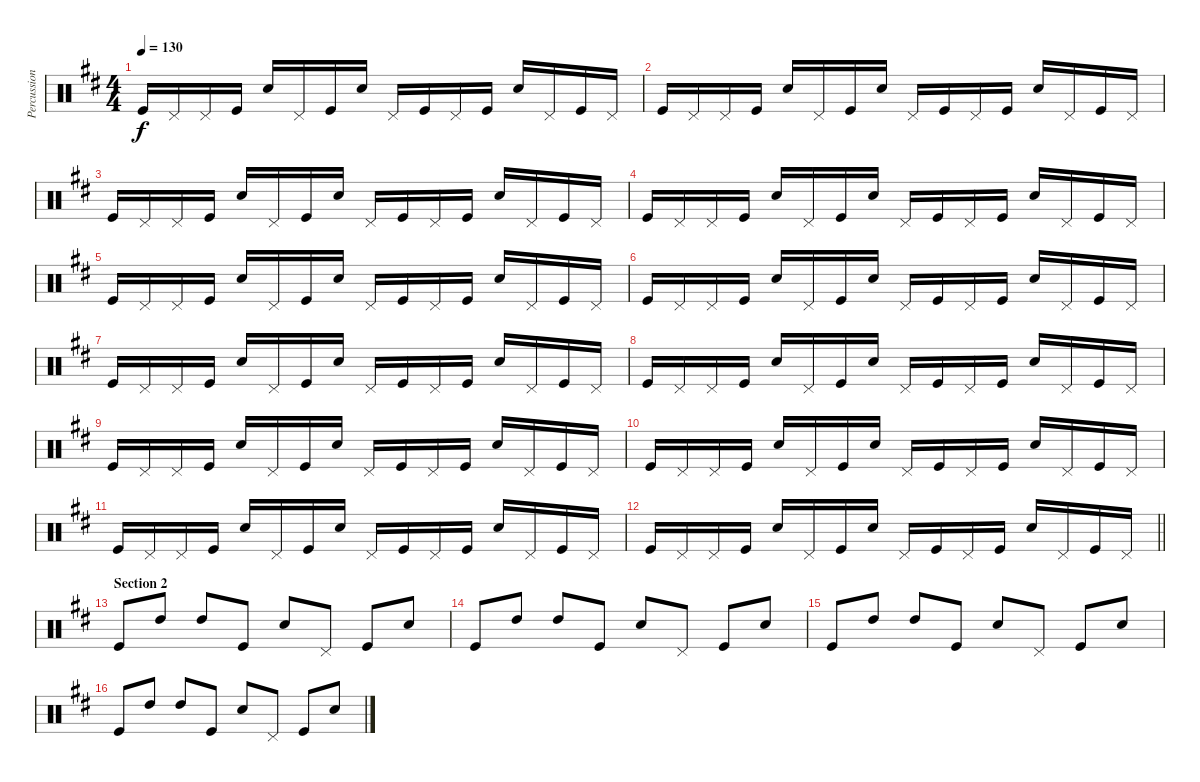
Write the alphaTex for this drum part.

\track ("Percussion" "Percussion") {instrument percussion}
\staff {score}
\articulation defaults
\ts (4 4)
\tempo 130
\clef neutral
\ks d "Kick (hit)".16{dy f} "Pedal Hi-Hat (hit)".16 "Pedal Hi-Hat (hit)".16 "Kick (hit)".16 "Snare (hit) 2".16 "Pedal Hi-Hat (hit)".16 "Kick (hit)".16 "Snare (hit) 2".16 "Pedal Hi-Hat (hit)".16 "Kick (hit)".16 "Pedal Hi-Hat (hit)".16 "Kick (hit)".16 "Snare (hit) 2".16 "Pedal Hi-Hat (hit)".16 "Kick (hit)".16 "Pedal Hi-Hat (hit)".16
|
"Kick (hit)".16 "Pedal Hi-Hat (hit)".16 "Pedal Hi-Hat (hit)".16 "Kick (hit)".16 "Snare (hit) 2".16 "Pedal Hi-Hat (hit)".16 "Kick (hit)".16 "Snare (hit) 2".16 "Pedal Hi-Hat (hit)".16 "Kick (hit)".16 "Pedal Hi-Hat (hit)".16 "Kick (hit)".16 "Snare (hit) 2".16 "Pedal Hi-Hat (hit)".16 "Kick (hit)".16 "Pedal Hi-Hat (hit)".16 |
"Kick (hit)".16 "Pedal Hi-Hat (hit)".16 "Pedal Hi-Hat (hit)".16 "Kick (hit)".16 "Snare (hit) 2".16 "Pedal Hi-Hat (hit)".16 "Kick (hit)".16 "Snare (hit) 2".16 "Pedal Hi-Hat (hit)".16 "Kick (hit)".16 "Pedal Hi-Hat (hit)".16 "Kick (hit)".16 "Snare (hit) 2".16 "Pedal Hi-Hat (hit)".16 "Kick (hit)".16 "Pedal Hi-Hat (hit)".16 |
"Kick (hit)".16 "Pedal Hi-Hat (hit)".16 "Pedal Hi-Hat (hit)".16 "Kick (hit)".16 "Snare (hit) 2".16 "Pedal Hi-Hat (hit)".16 "Kick (hit)".16 "Snare (hit) 2".16 "Pedal Hi-Hat (hit)".16 "Kick (hit)".16 "Pedal Hi-Hat (hit)".16 "Kick (hit)".16 "Snare (hit) 2".16 "Pedal Hi-Hat (hit)".16 "Kick (hit)".16 "Pedal Hi-Hat (hit)".16 |
"Kick (hit)".16 "Pedal Hi-Hat (hit)".16 "Pedal Hi-Hat (hit)".16 "Kick (hit)".16 "Snare (hit) 2".16 "Pedal Hi-Hat (hit)".16 "Kick (hit)".16 "Snare (hit) 2".16 "Pedal Hi-Hat (hit)".16 "Kick (hit)".16 "Pedal Hi-Hat (hit)".16 "Kick (hit)".16 "Snare (hit) 2".16 "Pedal Hi-Hat (hit)".16 "Kick (hit)".16 "Pedal Hi-Hat (hit)".16 |
"Kick (hit)".16 "Pedal Hi-Hat (hit)".16 "Pedal Hi-Hat (hit)".16 "Kick (hit)".16 "Snare (hit) 2".16 "Pedal Hi-Hat (hit)".16 "Kick (hit)".16 "Snare (hit) 2".16 "Pedal Hi-Hat (hit)".16 "Kick (hit)".16 "Pedal Hi-Hat (hit)".16 "Kick (hit)".16 "Snare (hit) 2".16 "Pedal Hi-Hat (hit)".16 "Kick (hit)".16 "Pedal Hi-Hat (hit)".16 |
"Kick (hit)".16 "Pedal Hi-Hat (hit)".16 "Pedal Hi-Hat (hit)".16 "Kick (hit)".16 "Snare (hit) 2".16 "Pedal Hi-Hat (hit)".16 "Kick (hit)".16 "Snare (hit) 2".16 "Pedal Hi-Hat (hit)".16 "Kick (hit)".16 "Pedal Hi-Hat (hit)".16 "Kick (hit)".16 "Snare (hit) 2".16 "Pedal Hi-Hat (hit)".16 "Kick (hit)".16 "Pedal Hi-Hat (hit)".16 |
"Kick (hit)".16 "Pedal Hi-Hat (hit)".16 "Pedal Hi-Hat (hit)".16 "Kick (hit)".16 "Snare (hit) 2".16 "Pedal Hi-Hat (hit)".16 "Kick (hit)".16 "Snare (hit) 2".16 "Pedal Hi-Hat (hit)".16 "Kick (hit)".16 "Pedal Hi-Hat (hit)".16 "Kick (hit)".16 "Snare (hit) 2".16 "Pedal Hi-Hat (hit)".16 "Kick (hit)".16 "Pedal Hi-Hat (hit)".16 |
"Kick (hit)".16 "Pedal Hi-Hat (hit)".16 "Pedal Hi-Hat (hit)".16 "Kick (hit)".16 "Snare (hit) 2".16 "Pedal Hi-Hat (hit)".16 "Kick (hit)".16 "Snare (hit) 2".16 "Pedal Hi-Hat (hit)".16 "Kick (hit)".16 "Pedal Hi-Hat (hit)".16 "Kick (hit)".16 "Snare (hit) 2".16 "Pedal Hi-Hat (hit)".16 "Kick (hit)".16 "Pedal Hi-Hat (hit)".16 |
"Kick (hit)".16 "Pedal Hi-Hat (hit)".16 "Pedal Hi-Hat (hit)".16 "Kick (hit)".16 "Snare (hit) 2".16 "Pedal Hi-Hat (hit)".16 "Kick (hit)".16 "Snare (hit) 2".16 "Pedal Hi-Hat (hit)".16 "Kick (hit)".16 "Pedal Hi-Hat (hit)".16 "Kick (hit)".16 "Snare (hit) 2".16 "Pedal Hi-Hat (hit)".16 "Kick (hit)".16 "Pedal Hi-Hat (hit)".16 |
"Kick (hit)".16 "Pedal Hi-Hat (hit)".16 "Pedal Hi-Hat (hit)".16 "Kick (hit)".16 "Snare (hit) 2".16 "Pedal Hi-Hat (hit)".16 "Kick (hit)".16 "Snare (hit) 2".16 "Pedal Hi-Hat (hit)".16 "Kick (hit)".16 "Pedal Hi-Hat (hit)".16 "Kick (hit)".16 "Snare (hit) 2".16 "Pedal Hi-Hat (hit)".16 "Kick (hit)".16 "Pedal Hi-Hat (hit)".16 |
\barLineRight lightlight "Kick (hit)".16 "Pedal Hi-Hat (hit)".16 "Pedal Hi-Hat (hit)".16 "Kick (hit)".16 "Snare (hit) 2".16 "Pedal Hi-Hat (hit)".16 "Kick (hit)".16 "Snare (hit) 2".16 "Pedal Hi-Hat (hit)".16 "Kick (hit)".16 "Pedal Hi-Hat (hit)".16 "Kick (hit)".16 "Snare (hit) 2".16 "Pedal Hi-Hat (hit)".16 "Kick (hit)".16 "Pedal Hi-Hat (hit)".16
|
\section ("" "Section 2")
"Kick (hit)".8 "High Tom (hit)".8 "High Tom (hit)".8 "Kick (hit)".8 "Snare (hit) 2".8 "Pedal Hi-Hat (hit)".8 "Kick (hit)".8 "Snare (hit) 2".8 |
"Kick (hit)".8 "High Tom (hit)".8 "High Tom (hit)".8 "Kick (hit)".8 "Snare (hit) 2".8 "Pedal Hi-Hat (hit)".8 "Kick (hit)".8 "Snare (hit) 2".8 |
"Kick (hit)".8 "High Tom (hit)".8 "High Tom (hit)".8 "Kick (hit)".8 "Snare (hit) 2".8 "Pedal Hi-Hat (hit)".8 "Kick (hit)".8 "Snare (hit) 2".8 |
"Kick (hit)".8 "High Tom (hit)".8 "High Tom (hit)".8 "Kick (hit)".8 "Snare (hit) 2".8 "Pedal Hi-Hat (hit)".8 "Kick (hit)".8 "Snare (hit) 2".8
